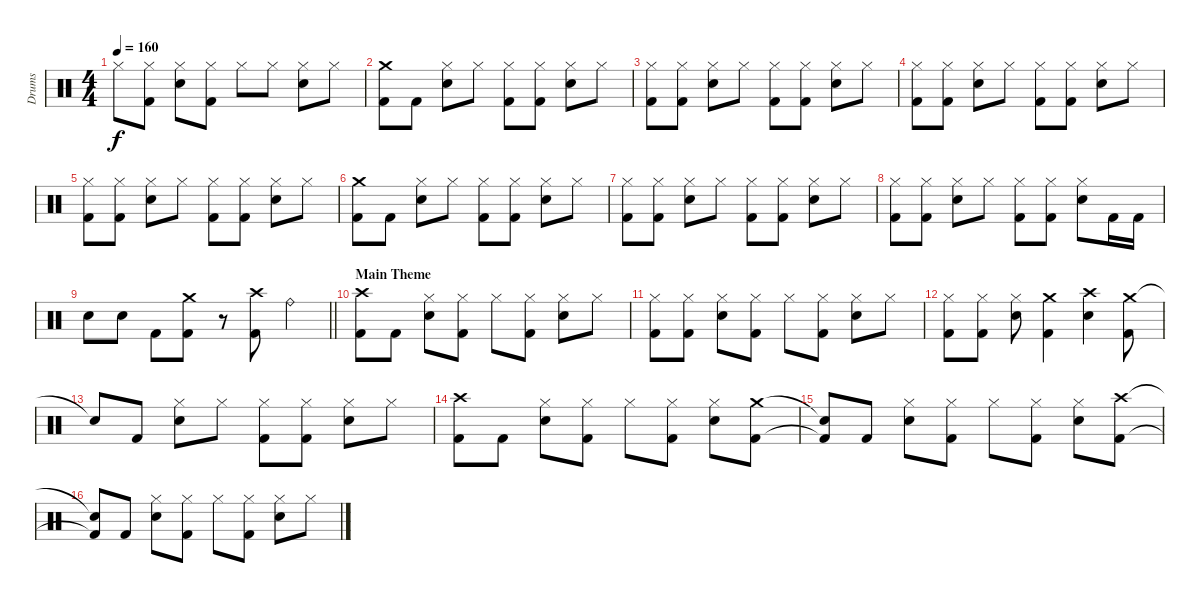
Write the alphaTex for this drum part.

\track ("Drums" "Drums") {instrument percussion}
\staff {score}
\articulation defaults
\ts (4 4)
\tempo 160
\clef neutral
\ks c "Hi-Hat (closed)".8{dy f}
("Hi-Hat (closed)" "Kick (hit) 2").8 ("Hi-Hat (closed)" "Snare (hit) 2").8 ("Hi-Hat (closed)" "Kick (hit) 2").8 "Hi-Hat (closed)".8 "Hi-Hat (closed)".8 ("Hi-Hat (closed)" "Snare (hit) 2").8 "Hi-Hat (closed)".8 |
("Crash medium (hit)" "Kick (hit) 2").8 "Kick (hit) 2".8 ("Hi-Hat (closed)" "Snare (hit) 2").8 "Hi-Hat (closed)".8 ("Hi-Hat (closed)" "Kick (hit) 2").8 ("Hi-Hat (closed)" "Kick (hit) 2").8 ("Hi-Hat (closed)" "Snare (hit) 2").8 "Hi-Hat (closed)".8 |
("Hi-Hat (closed)" "Kick (hit) 2").8 ("Hi-Hat (closed)" "Kick (hit) 2").8 ("Hi-Hat (closed)" "Snare (hit) 2").8 "Hi-Hat (closed)".8 ("Hi-Hat (closed)" "Kick (hit) 2").8 ("Hi-Hat (closed)" "Kick (hit) 2").8 ("Hi-Hat (closed)" "Snare (hit) 2").8 "Hi-Hat (closed)".8 |
("Hi-Hat (closed)" "Kick (hit) 2").8 ("Hi-Hat (closed)" "Kick (hit) 2").8 ("Hi-Hat (closed)" "Snare (hit) 2").8 "Hi-Hat (closed)".8 ("Hi-Hat (closed)" "Kick (hit) 2").8 ("Hi-Hat (closed)" "Kick (hit) 2").8 ("Hi-Hat (closed)" "Snare (hit) 2").8 "Hi-Hat (closed)".8 |
("Hi-Hat (closed)" "Kick (hit) 2").8 ("Hi-Hat (closed)" "Kick (hit) 2").8 ("Hi-Hat (closed)" "Snare (hit) 2").8 "Hi-Hat (closed)".8 ("Hi-Hat (closed)" "Kick (hit) 2").8 ("Hi-Hat (closed)" "Kick (hit) 2").8 ("Hi-Hat (closed)" "Snare (hit) 2").8 "Hi-Hat (closed)".8 |
("Crash medium (hit)" "Kick (hit) 2").8 "Kick (hit) 2".8 ("Hi-Hat (closed)" "Snare (hit) 2").8 "Hi-Hat (closed)".8 ("Hi-Hat (closed)" "Kick (hit) 2").8 ("Hi-Hat (closed)" "Kick (hit) 2").8 ("Hi-Hat (closed)" "Snare (hit) 2").8 "Hi-Hat (closed)".8 |
("Hi-Hat (closed)" "Kick (hit) 2").8 ("Hi-Hat (closed)" "Kick (hit) 2").8 ("Hi-Hat (closed)" "Snare (hit) 2").8 "Hi-Hat (closed)".8 ("Hi-Hat (closed)" "Kick (hit) 2").8 ("Hi-Hat (closed)" "Kick (hit) 2").8 ("Hi-Hat (closed)" "Snare (hit) 2").8 "Hi-Hat (closed)".8 |
("Hi-Hat (closed)" "Kick (hit) 2").8 ("Hi-Hat (closed)" "Kick (hit) 2").8 ("Hi-Hat (closed)" "Snare (hit) 2").8 "Hi-Hat (closed)".8 ("Hi-Hat (closed)" "Kick (hit) 2").8 ("Hi-Hat (closed)" "Kick (hit) 2").8 ("Hi-Hat (closed)" "Snare (hit) 2").8 "Kick (hit) 2".16 "Kick (hit) 2".16 |
\barLineRight lightlight "Snare (hit) 2".8 "Snare (hit) 2".8 "Kick (hit) 2".8
("Crash medium (hit)" "Kick (hit) 2").8 r.8 ("Crash high (hit)" "Kick (hit) 2").8 "Ride (bell)".4 |
\section ("" "Main Theme")
("Crash high (hit)" "Kick (hit) 2").8 "Kick (hit) 2".8 ("Hi-Hat (closed)" "Snare (hit) 2").8 ("Hi-Hat (closed)" "Kick (hit) 2").8 "Hi-Hat (closed)".8 ("Hi-Hat (closed)" "Kick (hit) 2").8 ("Hi-Hat (closed)" "Snare (hit) 2").8 "Hi-Hat (closed)".8 |
("Hi-Hat (closed)" "Kick (hit) 2").8 ("Hi-Hat (closed)" "Kick (hit) 2").8 ("Hi-Hat (closed)" "Snare (hit) 2").8 ("Hi-Hat (closed)" "Kick (hit) 2").8 "Hi-Hat (closed)".8 ("Hi-Hat (closed)" "Kick (hit) 2").8 ("Hi-Hat (closed)" "Snare (hit) 2").8 "Hi-Hat (closed)".8 |
("Hi-Hat (closed)" "Kick (hit) 2").8 ("Hi-Hat (closed)" "Kick (hit) 2").8 ("Hi-Hat (closed)" "Snare (hit) 2").8 ("Crash medium (hit)" "Kick (hit) 2").4 ("Crash high (hit)" "Snare (hit) 2").4 ("Crash medium (hit)" "Kick (hit) 2").8 |
"Snare (hit)"{t}.8 "Kick (hit) 2".8 ("Hi-Hat (closed)" "Snare (hit) 2").8 "Hi-Hat (closed)".8 ("Hi-Hat (closed)" "Kick (hit) 2").8 ("Hi-Hat (closed)" "Kick (hit) 2").8 ("Hi-Hat (closed)" "Snare (hit) 2").8 "Hi-Hat (closed)".8 |
("Crash high (hit)" "Kick (hit) 2").8 "Kick (hit) 2".8 ("Hi-Hat (closed)" "Snare (hit) 2").8 ("Hi-Hat (closed)" "Kick (hit) 2").8 "Hi-Hat (closed)".8 ("Hi-Hat (closed)" "Kick (hit) 2").8 ("Hi-Hat (closed)" "Snare (hit) 2").8 ("Crash medium (hit)" "Kick (hit) 2").8 |
("Snare (hit)"{t} "Kick (hit) 2"{t}).8 "Kick (hit) 2".8 ("Hi-Hat (closed)" "Snare (hit) 2").8 ("Hi-Hat (closed)" "Kick (hit) 2").8 "Hi-Hat (closed)".8 ("Hi-Hat (closed)" "Kick (hit) 2").8 ("Hi-Hat (closed)" "Snare (hit) 2").8 ("Crash high (hit)" "Kick (hit) 2").8 |
("Snare (hit)"{t} "Kick (hit) 2"{t}).8 "Kick (hit) 2".8 ("Hi-Hat (closed)" "Snare (hit) 2").8 ("Hi-Hat (closed)" "Kick (hit) 2").8 "Hi-Hat (closed)".8 ("Hi-Hat (closed)" "Kick (hit) 2").8 ("Hi-Hat (closed)" "Snare (hit) 2").8 "Hi-Hat (closed)".8
